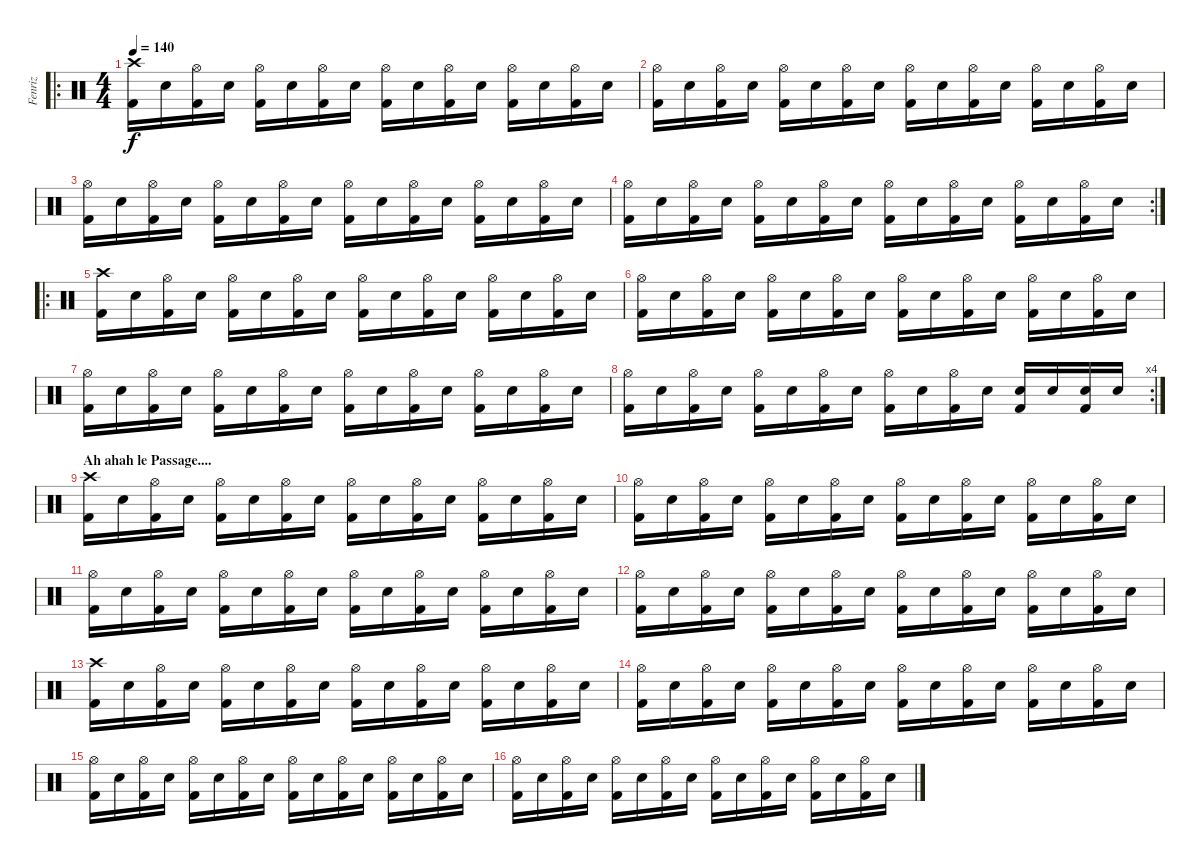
\track ("Fenriz" "Fenriz") {instrument percussion}
\staff {score}
\articulation defaults
\ro
\ts (4 4)
\tempo 140
\clef neutral
\ks c
("Kick (hit) 2" "Crash high (hit)").16{dy f} "Electric Snare (hit)".16 ("Kick (hit) 2" "Hi-Hat (open)").16 "Electric Snare (hit)".16 ("Kick (hit) 2" "Hi-Hat (open)").16 "Electric Snare (hit)".16 ("Kick (hit) 2" "Hi-Hat (open)").16 "Electric Snare (hit)".16 ("Kick (hit) 2" "Hi-Hat (open)").16 "Electric Snare (hit)".16 ("Kick (hit) 2" "Hi-Hat (open)").16 "Electric Snare (hit)".16 ("Kick (hit) 2" "Hi-Hat (open)").16 "Electric Snare (hit)".16 ("Kick (hit) 2" "Hi-Hat (open)").16 "Electric Snare (hit)".16 |
("Kick (hit) 2" "Hi-Hat (open)").16 "Electric Snare (hit)".16 ("Kick (hit) 2" "Hi-Hat (open)").16 "Electric Snare (hit)".16 ("Kick (hit) 2" "Hi-Hat (open)").16 "Electric Snare (hit)".16 ("Kick (hit) 2" "Hi-Hat (open)").16 "Electric Snare (hit)".16 ("Kick (hit) 2" "Hi-Hat (open)").16 "Electric Snare (hit)".16 ("Kick (hit) 2" "Hi-Hat (open)").16 "Electric Snare (hit)".16 ("Kick (hit) 2" "Hi-Hat (open)").16 "Electric Snare (hit)".16 ("Kick (hit) 2" "Hi-Hat (open)").16 "Electric Snare (hit)".16 |
("Kick (hit) 2" "Hi-Hat (open)").16 "Electric Snare (hit)".16 ("Kick (hit) 2" "Hi-Hat (open)").16 "Electric Snare (hit)".16 ("Kick (hit) 2" "Hi-Hat (open)").16 "Electric Snare (hit)".16 ("Kick (hit) 2" "Hi-Hat (open)").16 "Electric Snare (hit)".16 ("Kick (hit) 2" "Hi-Hat (open)").16 "Electric Snare (hit)".16 ("Kick (hit) 2" "Hi-Hat (open)").16 "Electric Snare (hit)".16 ("Kick (hit) 2" "Hi-Hat (open)").16 "Electric Snare (hit)".16 ("Kick (hit) 2" "Hi-Hat (open)").16 "Electric Snare (hit)".16 |
\rc 2
("Kick (hit) 2" "Hi-Hat (open)").16 "Electric Snare (hit)".16 ("Kick (hit) 2" "Hi-Hat (open)").16 "Electric Snare (hit)".16 ("Kick (hit) 2" "Hi-Hat (open)").16 "Electric Snare (hit)".16 ("Kick (hit) 2" "Hi-Hat (open)").16 "Electric Snare (hit)".16 ("Kick (hit) 2" "Hi-Hat (open)").16 "Electric Snare (hit)".16 ("Kick (hit) 2" "Hi-Hat (open)").16 "Electric Snare (hit)".16 ("Kick (hit) 2" "Hi-Hat (open)").16 "Electric Snare (hit)".16 ("Kick (hit) 2" "Hi-Hat (open)").16 "Electric Snare (hit)".16 |
\ro
("Kick (hit) 2" "Crash high (hit)").16 "Electric Snare (hit)".16 ("Kick (hit) 2" "Hi-Hat (open)").16 "Electric Snare (hit)".16 ("Kick (hit) 2" "Hi-Hat (open)").16 "Electric Snare (hit)".16 ("Kick (hit) 2" "Hi-Hat (open)").16 "Electric Snare (hit)".16 ("Kick (hit) 2" "Hi-Hat (open)").16 "Electric Snare (hit)".16 ("Kick (hit) 2" "Hi-Hat (open)").16 "Electric Snare (hit)".16 ("Kick (hit) 2" "Hi-Hat (open)").16 "Electric Snare (hit)".16 ("Kick (hit) 2" "Hi-Hat (open)").16 "Electric Snare (hit)".16 |
("Kick (hit) 2" "Hi-Hat (open)").16 "Electric Snare (hit)".16 ("Kick (hit) 2" "Hi-Hat (open)").16 "Electric Snare (hit)".16 ("Kick (hit) 2" "Hi-Hat (open)").16 "Electric Snare (hit)".16 ("Kick (hit) 2" "Hi-Hat (open)").16 "Electric Snare (hit)".16 ("Kick (hit) 2" "Hi-Hat (open)").16 "Electric Snare (hit)".16 ("Kick (hit) 2" "Hi-Hat (open)").16 "Electric Snare (hit)".16 ("Kick (hit) 2" "Hi-Hat (open)").16 "Electric Snare (hit)".16 ("Kick (hit) 2" "Hi-Hat (open)").16 "Electric Snare (hit)".16 |
("Kick (hit) 2" "Hi-Hat (open)").16 "Electric Snare (hit)".16 ("Kick (hit) 2" "Hi-Hat (open)").16 "Electric Snare (hit)".16 ("Kick (hit) 2" "Hi-Hat (open)").16 "Electric Snare (hit)".16 ("Kick (hit) 2" "Hi-Hat (open)").16 "Electric Snare (hit)".16 ("Kick (hit) 2" "Hi-Hat (open)").16 "Electric Snare (hit)".16 ("Kick (hit) 2" "Hi-Hat (open)").16 "Electric Snare (hit)".16 ("Kick (hit) 2" "Hi-Hat (open)").16 "Electric Snare (hit)".16 ("Kick (hit) 2" "Hi-Hat (open)").16 "Electric Snare (hit)".16 |
\rc 4
("Kick (hit) 2" "Hi-Hat (open)").16 "Electric Snare (hit)".16 ("Kick (hit) 2" "Hi-Hat (open)").16 "Electric Snare (hit)".16 ("Kick (hit) 2" "Hi-Hat (open)").16 "Electric Snare (hit)".16 ("Kick (hit) 2" "Hi-Hat (open)").16 "Electric Snare (hit)".16 ("Kick (hit) 2" "Hi-Hat (open)").16 "Electric Snare (hit)".16 ("Kick (hit) 2" "Hi-Hat (open)").16 "Electric Snare (hit)".16 ("Kick (hit) 2" "Electric Snare (hit)").16 "Electric Snare (hit)".16 ("Kick (hit) 2" "Electric Snare (hit)").16 "Electric Snare (hit)".16 |
\section ("" "Ah ahah le Passage....")
("Kick (hit) 2" "Crash high (hit)").16 "Electric Snare (hit)".16 ("Kick (hit) 2" "Hi-Hat (open)").16 "Electric Snare (hit)".16 ("Kick (hit) 2" "Hi-Hat (open)").16 "Electric Snare (hit)".16 ("Kick (hit) 2" "Hi-Hat (open)").16 "Electric Snare (hit)".16 ("Kick (hit) 2" "Hi-Hat (open)").16 "Electric Snare (hit)".16 ("Kick (hit) 2" "Hi-Hat (open)").16 "Electric Snare (hit)".16 ("Kick (hit) 2" "Hi-Hat (open)").16 "Electric Snare (hit)".16 ("Kick (hit) 2" "Hi-Hat (open)").16 "Electric Snare (hit)".16 |
("Kick (hit) 2" "Hi-Hat (open)").16 "Electric Snare (hit)".16 ("Kick (hit) 2" "Hi-Hat (open)").16 "Electric Snare (hit)".16 ("Kick (hit) 2" "Hi-Hat (open)").16 "Electric Snare (hit)".16 ("Kick (hit) 2" "Hi-Hat (open)").16 "Electric Snare (hit)".16 ("Kick (hit) 2" "Hi-Hat (open)").16 "Electric Snare (hit)".16 ("Kick (hit) 2" "Hi-Hat (open)").16 "Electric Snare (hit)".16 ("Kick (hit) 2" "Hi-Hat (open)").16 "Electric Snare (hit)".16 ("Kick (hit) 2" "Hi-Hat (open)").16 "Electric Snare (hit)".16 |
("Kick (hit) 2" "Hi-Hat (open)").16 "Electric Snare (hit)".16 ("Kick (hit) 2" "Hi-Hat (open)").16 "Electric Snare (hit)".16 ("Kick (hit) 2" "Hi-Hat (open)").16 "Electric Snare (hit)".16 ("Kick (hit) 2" "Hi-Hat (open)").16 "Electric Snare (hit)".16 ("Kick (hit) 2" "Hi-Hat (open)").16 "Electric Snare (hit)".16 ("Kick (hit) 2" "Hi-Hat (open)").16 "Electric Snare (hit)".16 ("Kick (hit) 2" "Hi-Hat (open)").16 "Electric Snare (hit)".16 ("Kick (hit) 2" "Hi-Hat (open)").16 "Electric Snare (hit)".16 |
("Kick (hit) 2" "Hi-Hat (open)").16 "Electric Snare (hit)".16 ("Kick (hit) 2" "Hi-Hat (open)").16 "Electric Snare (hit)".16 ("Kick (hit) 2" "Hi-Hat (open)").16 "Electric Snare (hit)".16 ("Kick (hit) 2" "Hi-Hat (open)").16 "Electric Snare (hit)".16 ("Kick (hit) 2" "Hi-Hat (open)").16 "Electric Snare (hit)".16 ("Kick (hit) 2" "Hi-Hat (open)").16 "Electric Snare (hit)".16 ("Kick (hit) 2" "Hi-Hat (open)").16 "Electric Snare (hit)".16 ("Kick (hit) 2" "Hi-Hat (open)").16 "Electric Snare (hit)".16 |
("Kick (hit) 2" "Crash high (hit)").16 "Electric Snare (hit)".16 ("Kick (hit) 2" "Hi-Hat (open)").16 "Electric Snare (hit)".16 ("Kick (hit) 2" "Hi-Hat (open)").16 "Electric Snare (hit)".16 ("Kick (hit) 2" "Hi-Hat (open)").16 "Electric Snare (hit)".16 ("Kick (hit) 2" "Hi-Hat (open)").16 "Electric Snare (hit)".16 ("Kick (hit) 2" "Hi-Hat (open)").16 "Electric Snare (hit)".16 ("Kick (hit) 2" "Hi-Hat (open)").16 "Electric Snare (hit)".16 ("Kick (hit) 2" "Hi-Hat (open)").16 "Electric Snare (hit)".16 |
("Kick (hit) 2" "Hi-Hat (open)").16 "Electric Snare (hit)".16 ("Kick (hit) 2" "Hi-Hat (open)").16 "Electric Snare (hit)".16 ("Kick (hit) 2" "Hi-Hat (open)").16 "Electric Snare (hit)".16 ("Kick (hit) 2" "Hi-Hat (open)").16 "Electric Snare (hit)".16 ("Kick (hit) 2" "Hi-Hat (open)").16 "Electric Snare (hit)".16 ("Kick (hit) 2" "Hi-Hat (open)").16 "Electric Snare (hit)".16 ("Kick (hit) 2" "Hi-Hat (open)").16 "Electric Snare (hit)".16 ("Kick (hit) 2" "Hi-Hat (open)").16 "Electric Snare (hit)".16 |
("Kick (hit) 2" "Hi-Hat (open)").16 "Electric Snare (hit)".16 ("Kick (hit) 2" "Hi-Hat (open)").16 "Electric Snare (hit)".16 ("Kick (hit) 2" "Hi-Hat (open)").16 "Electric Snare (hit)".16 ("Kick (hit) 2" "Hi-Hat (open)").16 "Electric Snare (hit)".16 ("Kick (hit) 2" "Hi-Hat (open)").16 "Electric Snare (hit)".16 ("Kick (hit) 2" "Hi-Hat (open)").16 "Electric Snare (hit)".16 ("Kick (hit) 2" "Hi-Hat (open)").16 "Electric Snare (hit)".16 ("Kick (hit) 2" "Hi-Hat (open)").16 "Electric Snare (hit)".16 |
("Kick (hit) 2" "Hi-Hat (open)").16 "Electric Snare (hit)".16 ("Kick (hit) 2" "Hi-Hat (open)").16 "Electric Snare (hit)".16 ("Kick (hit) 2" "Hi-Hat (open)").16 "Electric Snare (hit)".16 ("Kick (hit) 2" "Hi-Hat (open)").16 "Electric Snare (hit)".16 ("Kick (hit) 2" "Hi-Hat (open)").16 "Electric Snare (hit)".16 ("Kick (hit) 2" "Hi-Hat (open)").16 "Electric Snare (hit)".16 ("Kick (hit) 2" "Hi-Hat (open)").16 "Electric Snare (hit)".16 ("Kick (hit) 2" "Hi-Hat (open)").16 "Electric Snare (hit)".16
